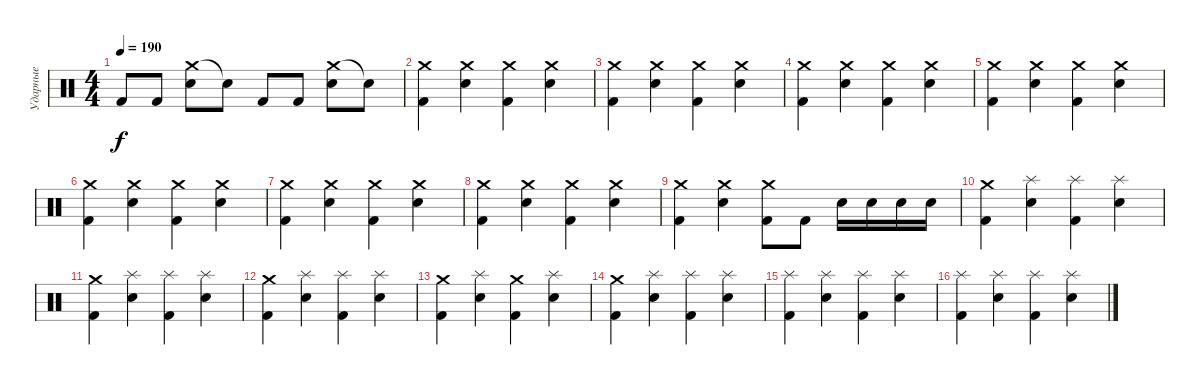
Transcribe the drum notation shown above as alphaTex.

\track ("Ударные" "Ударные") {instrument percussion}
\staff {score}
\articulation defaults
\ts (4 4)
\tempo 190
\clef neutral
\ks c "Kick (hit) 2".8{dy f} "Kick (hit) 2".8
("Crash medium (hit)" "Snare (hit) 2").8 "Snare (hit)"{t}.8 "Kick (hit) 2".8 "Kick (hit) 2".8 ("Crash medium (hit)" "Snare (hit) 2").8 "Snare (hit)"{t}.8 |
("Crash medium (hit)" "Kick (hit) 2").4 ("Crash medium (hit)" "Snare (hit) 2").4 ("Crash medium (hit)" "Kick (hit) 2").4 ("Crash medium (hit)" "Snare (hit) 2").4 |
("Crash medium (hit)" "Kick (hit) 2").4 ("Crash medium (hit)" "Snare (hit) 2").4 ("Crash medium (hit)" "Kick (hit) 2").4 ("Crash medium (hit)" "Snare (hit) 2").4 |
("Crash medium (hit)" "Kick (hit) 2").4 ("Crash medium (hit)" "Snare (hit) 2").4 ("Crash medium (hit)" "Kick (hit) 2").4 ("Crash medium (hit)" "Snare (hit) 2").4 |
("Crash medium (hit)" "Kick (hit) 2").4 ("Crash medium (hit)" "Snare (hit) 2").4 ("Crash medium (hit)" "Kick (hit) 2").4 ("Crash medium (hit)" "Snare (hit) 2").4 |
("Crash medium (hit)" "Kick (hit) 2").4 ("Crash medium (hit)" "Snare (hit) 2").4 ("Crash medium (hit)" "Kick (hit) 2").4 ("Crash medium (hit)" "Snare (hit) 2").4 |
("Crash medium (hit)" "Kick (hit) 2").4 ("Crash medium (hit)" "Snare (hit) 2").4 ("Crash medium (hit)" "Kick (hit) 2").4 ("Crash medium (hit)" "Snare (hit) 2").4 |
("Crash medium (hit)" "Kick (hit) 2").4 ("Crash medium (hit)" "Snare (hit) 2").4 ("Crash medium (hit)" "Kick (hit) 2").4 ("Crash medium (hit)" "Snare (hit) 2").4 |
("Crash medium (hit)" "Kick (hit) 2").4 ("Crash medium (hit)" "Snare (hit) 2").4 ("Crash medium (hit)" "Kick (hit) 2").8 "Kick (hit) 2".8 "Snare (hit) 2".16 "Snare (hit) 2".16 "Snare (hit) 2".16 "Snare (hit) 2".16 |
("Crash medium (hit)" "Kick (hit) 2").4 ("Splash (hit)" "Snare (hit) 2").4 ("Splash (hit)" "Kick (hit) 2").4 ("Splash (hit)" "Snare (hit) 2").4 |
("Crash medium (hit)" "Kick (hit) 2").4 ("Splash (hit)" "Snare (hit) 2").4 ("Splash (hit)" "Kick (hit) 2").4 ("Splash (hit)" "Snare (hit) 2").4 |
("Crash medium (hit)" "Kick (hit) 2").4 ("Splash (hit)" "Snare (hit) 2").4 ("Splash (hit)" "Kick (hit) 2").4 ("Splash (hit)" "Snare (hit) 2").4 |
("Crash medium (hit)" "Kick (hit) 2").4 ("Splash (hit)" "Snare (hit) 2").4 ("Crash medium (hit)" "Kick (hit) 2").4 ("Splash (hit)" "Snare (hit) 2").4 |
("Crash medium (hit)" "Kick (hit) 2").4 ("Splash (hit)" "Snare (hit) 2").4 ("Splash (hit)" "Kick (hit) 2").4 ("Splash (hit)" "Snare (hit) 2").4 |
("Splash (hit)" "Kick (hit) 2").4 ("Splash (hit)" "Snare (hit) 2").4 ("Splash (hit)" "Kick (hit) 2").4 ("Splash (hit)" "Snare (hit) 2").4 |
("Splash (hit)" "Kick (hit) 2").4 ("Splash (hit)" "Snare (hit) 2").4 ("Splash (hit)" "Kick (hit) 2").4 ("Splash (hit)" "Snare (hit) 2").4
